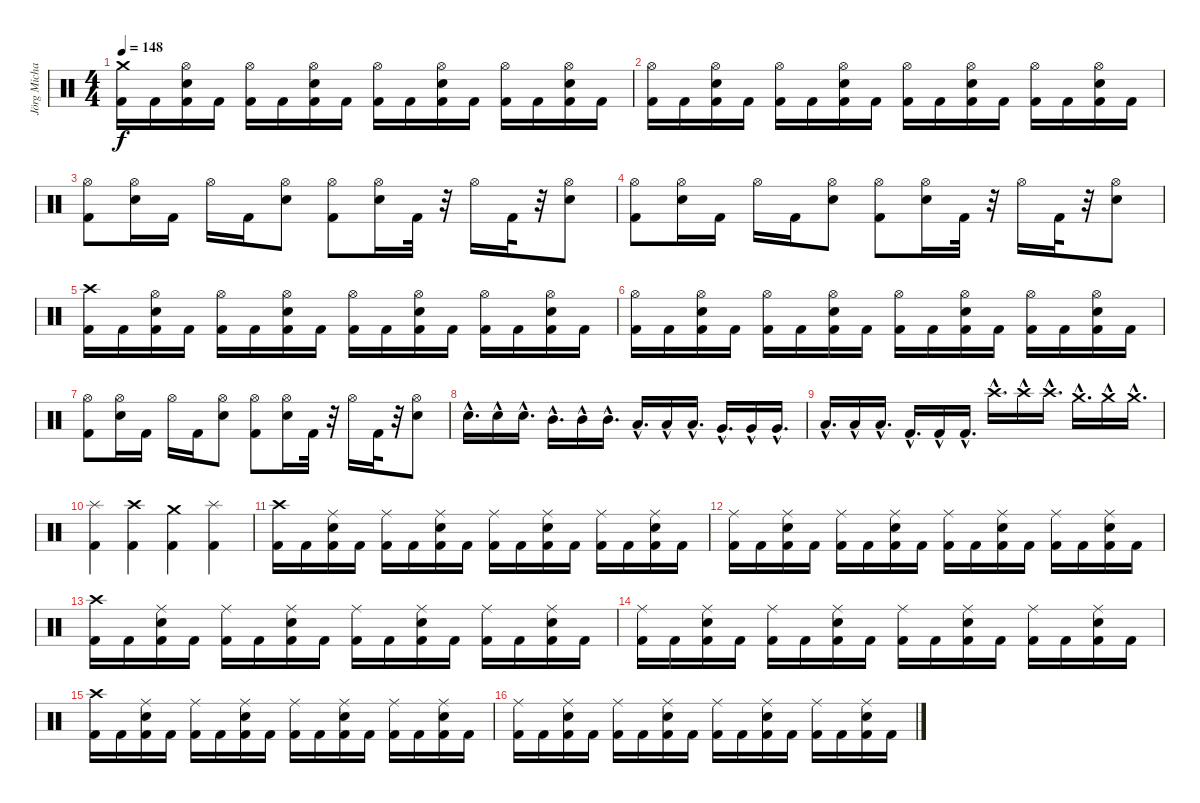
\track ("Jörg Michael" "Jörg Micha") {instrument percussion}
\staff {score}
\articulation defaults
\ts (4 4)
\tempo 148
\clef neutral
\ks c
("Crash medium (hit)" "Kick (hit) 2").16{dy f} "Kick (hit) 2".16 ("Hi-Hat (open)" "Electric Snare (hit)" "Kick (hit) 2").16 "Kick (hit) 2".16 ("Hi-Hat (open)" "Kick (hit) 2").16 "Kick (hit) 2".16 ("Hi-Hat (open)" "Electric Snare (hit)" "Kick (hit) 2").16 "Kick (hit) 2".16 ("Hi-Hat (open)" "Kick (hit) 2").16 "Kick (hit) 2".16 ("Hi-Hat (open)" "Electric Snare (hit)" "Kick (hit) 2").16 "Kick (hit) 2".16 ("Hi-Hat (open)" "Kick (hit) 2").16 "Kick (hit) 2".16 ("Hi-Hat (open)" "Electric Snare (hit)" "Kick (hit) 2").16 "Kick (hit) 2".16 |
("Kick (hit) 2" "Hi-Hat (open)").16 "Kick (hit) 2".16 ("Hi-Hat (open)" "Kick (hit) 2" "Electric Snare (hit)").16 "Kick (hit) 2".16 ("Kick (hit) 2" "Hi-Hat (open)").16 "Kick (hit) 2".16 ("Hi-Hat (open)" "Kick (hit) 2" "Electric Snare (hit)").16 "Kick (hit) 2".16 ("Kick (hit) 2" "Hi-Hat (open)").16 "Kick (hit) 2".16 ("Hi-Hat (open)" "Kick (hit) 2" "Electric Snare (hit)").16 "Kick (hit) 2".16 ("Kick (hit) 2" "Hi-Hat (open)").16 "Kick (hit) 2".16 ("Hi-Hat (open)" "Kick (hit) 2" "Electric Snare (hit)").16 "Kick (hit) 2".16 |
("Hi-Hat (open)" "Kick (hit) 2").8 ("Hi-Hat (open)" "Electric Snare (hit)").16 "Kick (hit) 2".16 "Hi-Hat (open)".16 "Kick (hit) 2".16 ("Hi-Hat (open)" "Electric Snare (hit)").8 ("Hi-Hat (open)" "Kick (hit) 2").8 ("Hi-Hat (open)" "Electric Snare (hit)").16 "Kick (hit) 2".32 r.32 "Hi-Hat (open)".16 "Kick (hit) 2".32 r.32 ("Hi-Hat (open)" "Electric Snare (hit)").8 |
("Hi-Hat (open)" "Kick (hit) 2").8 ("Hi-Hat (open)" "Electric Snare (hit)").16 "Kick (hit) 2".16 "Hi-Hat (open)".16 "Kick (hit) 2".16 ("Hi-Hat (open)" "Electric Snare (hit)").8 ("Hi-Hat (open)" "Kick (hit) 2").8 ("Hi-Hat (open)" "Electric Snare (hit)").16 "Kick (hit) 2".32 r.32 "Hi-Hat (open)".16 "Kick (hit) 2".32 r.32 ("Hi-Hat (open)" "Electric Snare (hit)").8 |
("Crash high (hit)" "Kick (hit) 2").16 "Kick (hit) 2".16 ("Hi-Hat (open)" "Electric Snare (hit)" "Kick (hit) 2").16 "Kick (hit) 2".16 ("Hi-Hat (open)" "Kick (hit) 2").16 "Kick (hit) 2".16 ("Hi-Hat (open)" "Electric Snare (hit)" "Kick (hit) 2").16 "Kick (hit) 2".16 ("Hi-Hat (open)" "Kick (hit) 2").16 "Kick (hit) 2".16 ("Hi-Hat (open)" "Electric Snare (hit)" "Kick (hit) 2").16 "Kick (hit) 2".16 ("Hi-Hat (open)" "Kick (hit) 2").16 "Kick (hit) 2".16 ("Hi-Hat (open)" "Electric Snare (hit)" "Kick (hit) 2").16 "Kick (hit) 2".16 |
("Kick (hit) 2" "Hi-Hat (open)").16 "Kick (hit) 2".16 ("Hi-Hat (open)" "Kick (hit) 2" "Electric Snare (hit)").16 "Kick (hit) 2".16 ("Kick (hit) 2" "Hi-Hat (open)").16 "Kick (hit) 2".16 ("Hi-Hat (open)" "Kick (hit) 2" "Electric Snare (hit)").16 "Kick (hit) 2".16 ("Kick (hit) 2" "Hi-Hat (open)").16 "Kick (hit) 2".16 ("Hi-Hat (open)" "Kick (hit) 2" "Electric Snare (hit)").16 "Kick (hit) 2".16 ("Kick (hit) 2" "Hi-Hat (open)").16 "Kick (hit) 2".16 ("Hi-Hat (open)" "Kick (hit) 2" "Electric Snare (hit)").16 "Kick (hit) 2".16 |
("Hi-Hat (open)" "Kick (hit) 2").8 ("Hi-Hat (open)" "Electric Snare (hit)").16 "Kick (hit) 2".16 "Hi-Hat (open)".16 "Kick (hit) 2".16 ("Hi-Hat (open)" "Electric Snare (hit)").8 ("Hi-Hat (open)" "Kick (hit) 2").8 ("Hi-Hat (open)" "Electric Snare (hit)").16 "Kick (hit) 2".32 r.32 "Hi-Hat (open)".16 "Kick (hit) 2".32 r.32 ("Hi-Hat (open)" "Electric Snare (hit)").8 |
"Electric Snare (hit)"{hac}.16{d} "Electric Snare (hit)"{hac}.16 "Electric Snare (hit)"{hac}.16{d} "Mid Tom (hit)"{hac}.16{d} "Mid Tom (hit)"{hac}.16 "Mid Tom (hit)"{hac}.16{d} "Low Tom (hit)"{hac}.16{d} "Low Tom (hit)"{hac}.16 "Low Tom (hit)"{hac}.16{d} "Very Low Tom (hit)"{hac}.16{d} "Very Low Tom (hit)"{hac}.16 "Very Low Tom (hit)"{hac}.16{d} |
"Low Floor Tom (hit)"{hac}.16{d} "Low Floor Tom (hit)"{hac}.16 "Low Floor Tom (hit)"{hac}.16{d} "Kick (hit) 2"{hac}.16{d} "Kick (hit) 2"{hac}.16 "Kick (hit) 2"{hac}.16{d} "Crash high (hit)"{hac}.16{d} "Crash high (hit)"{hac}.16 "Crash high (hit)"{hac}.16{d} "Crash medium (hit)"{hac}.16{d} "Crash medium (hit)"{hac}.16 "Crash medium (hit)"{hac}.16{d} |
("Splash (hit)" "Kick (hit) 2").4 ("Crash high (hit)" "Kick (hit) 2").4 ("Crash medium (hit)" "Kick (hit) 2").4 ("Splash (hit)" "Kick (hit) 2").4 |
("Kick (hit) 2" "Crash high (hit)").16 "Kick (hit) 2".16 ("Electric Snare (hit)" "Kick (hit) 2" "Ride (middle)").16 "Kick (hit) 2".16 ("Kick (hit) 2" "Ride (middle)").16 "Kick (hit) 2".16 ("Electric Snare (hit)" "Kick (hit) 2" "Ride (middle)").16 "Kick (hit) 2".16 ("Kick (hit) 2" "Ride (middle)").16 "Kick (hit) 2".16 ("Electric Snare (hit)" "Kick (hit) 2" "Ride (middle)").16 "Kick (hit) 2".16 ("Kick (hit) 2" "Ride (middle)").16 "Kick (hit) 2".16 ("Electric Snare (hit)" "Kick (hit) 2" "Ride (middle)").16 "Kick (hit) 2".16 |
("Kick (hit) 2" "Ride (middle)").16 "Kick (hit) 2".16 ("Electric Snare (hit)" "Kick (hit) 2" "Ride (middle)").16 "Kick (hit) 2".16 ("Kick (hit) 2" "Ride (middle)").16 "Kick (hit) 2".16 ("Electric Snare (hit)" "Kick (hit) 2" "Ride (middle)").16 "Kick (hit) 2".16 ("Kick (hit) 2" "Ride (middle)").16 "Kick (hit) 2".16 ("Electric Snare (hit)" "Kick (hit) 2" "Ride (middle)").16 "Kick (hit) 2".16 ("Kick (hit) 2" "Ride (middle)").16 "Kick (hit) 2".16 ("Electric Snare (hit)" "Kick (hit) 2" "Ride (middle)").16 "Kick (hit) 2".16 |
("Kick (hit) 2" "Crash high (hit)").16 "Kick (hit) 2".16 ("Electric Snare (hit)" "Kick (hit) 2" "Ride (middle)").16 "Kick (hit) 2".16 ("Kick (hit) 2" "Ride (middle)").16 "Kick (hit) 2".16 ("Electric Snare (hit)" "Kick (hit) 2" "Ride (middle)").16 "Kick (hit) 2".16 ("Kick (hit) 2" "Ride (middle)").16 "Kick (hit) 2".16 ("Electric Snare (hit)" "Kick (hit) 2" "Ride (middle)").16 "Kick (hit) 2".16 ("Kick (hit) 2" "Ride (middle)").16 "Kick (hit) 2".16 ("Electric Snare (hit)" "Kick (hit) 2" "Ride (middle)").16 "Kick (hit) 2".16 |
("Kick (hit) 2" "Ride (middle)").16 "Kick (hit) 2".16 ("Electric Snare (hit)" "Kick (hit) 2" "Ride (middle)").16 "Kick (hit) 2".16 ("Kick (hit) 2" "Ride (middle)").16 "Kick (hit) 2".16 ("Electric Snare (hit)" "Kick (hit) 2" "Ride (middle)").16 "Kick (hit) 2".16 ("Kick (hit) 2" "Ride (middle)").16 "Kick (hit) 2".16 ("Electric Snare (hit)" "Kick (hit) 2" "Ride (middle)").16 "Kick (hit) 2".16 ("Kick (hit) 2" "Ride (middle)").16 "Kick (hit) 2".16 ("Electric Snare (hit)" "Kick (hit) 2" "Ride (middle)").16 "Kick (hit) 2".16 |
("Kick (hit) 2" "Crash high (hit)").16 "Kick (hit) 2".16 ("Electric Snare (hit)" "Kick (hit) 2" "Ride (middle)").16 "Kick (hit) 2".16 ("Kick (hit) 2" "Ride (middle)").16 "Kick (hit) 2".16 ("Electric Snare (hit)" "Kick (hit) 2" "Ride (middle)").16 "Kick (hit) 2".16 ("Kick (hit) 2" "Ride (middle)").16 "Kick (hit) 2".16 ("Electric Snare (hit)" "Kick (hit) 2" "Ride (middle)").16 "Kick (hit) 2".16 ("Kick (hit) 2" "Ride (middle)").16 "Kick (hit) 2".16 ("Electric Snare (hit)" "Kick (hit) 2" "Ride (middle)").16 "Kick (hit) 2".16 |
("Kick (hit) 2" "Ride (middle)").16 "Kick (hit) 2".16 ("Electric Snare (hit)" "Kick (hit) 2" "Ride (middle)").16 "Kick (hit) 2".16 ("Kick (hit) 2" "Ride (middle)").16 "Kick (hit) 2".16 ("Electric Snare (hit)" "Kick (hit) 2" "Ride (middle)").16 "Kick (hit) 2".16 ("Kick (hit) 2" "Ride (middle)").16 "Kick (hit) 2".16 ("Electric Snare (hit)" "Kick (hit) 2" "Ride (middle)").16 "Kick (hit) 2".16 ("Kick (hit) 2" "Ride (middle)").16 "Kick (hit) 2".16 ("Electric Snare (hit)" "Kick (hit) 2" "Ride (middle)").16 "Kick (hit) 2".16
